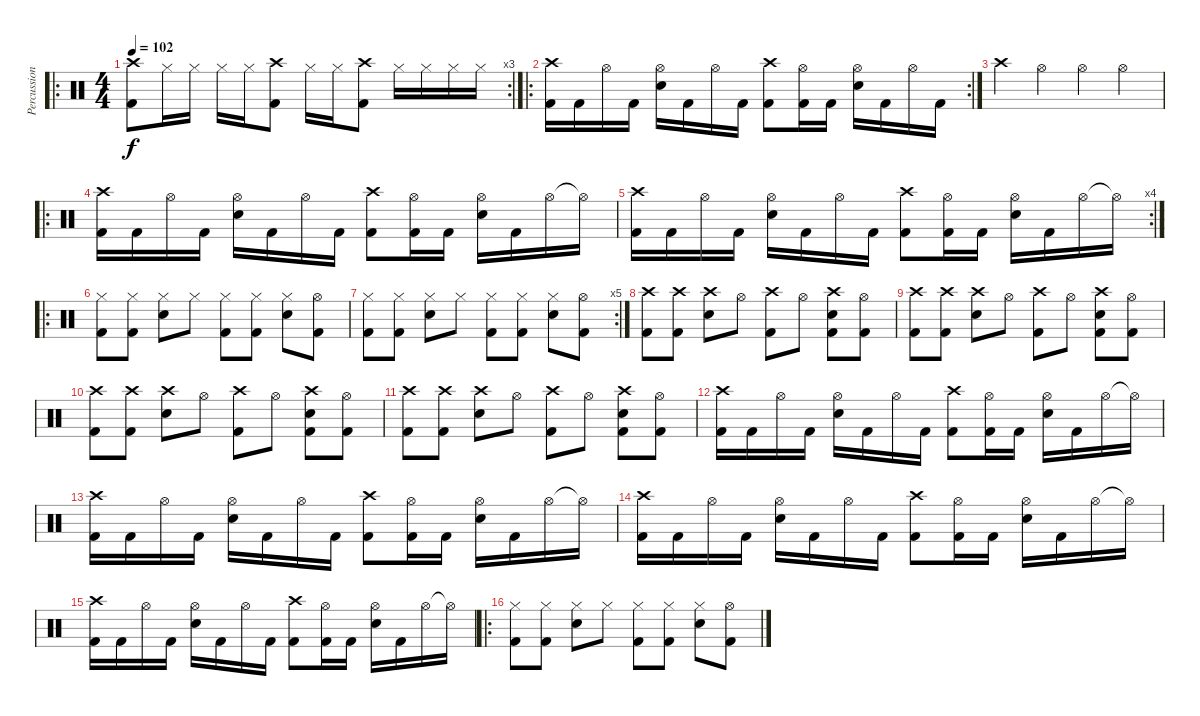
\track ("Percussioni" "Percussion") {instrument percussion}
\staff {score}
\articulation defaults
\ro
\rc 3
\ts (4 4)
\tempo 102
\clef neutral
\ks c
("Crash high (hit)" "Kick (hit) 2").8{dy f} "Hi-Hat (closed)".16 "Hi-Hat (closed)".16 "Hi-Hat (closed)".16 "Hi-Hat (closed)".16 ("Crash high (hit)" "Kick (hit) 2").8 "Hi-Hat (closed)".16 "Hi-Hat (closed)".16 ("Crash high (hit)" "Kick (hit) 2").8 "Hi-Hat (closed)".16 "Hi-Hat (closed)".16 "Hi-Hat (closed)".16 "Hi-Hat (closed)".16 |
\ro
\rc 2
("Crash high (hit)" "Kick (hit) 2").16 "Kick (hit) 2".16 "Hi-Hat (open)".16 "Kick (hit) 2".16 ("Hi-Hat (open)" "Electric Snare (hit)").16 "Kick (hit) 2".16 "Hi-Hat (open)".16 "Kick (hit) 2".16 ("Crash high (hit)" "Kick (hit) 2").8 ("Hi-Hat (open)" "Kick (hit) 2").16 "Kick (hit) 2".16 ("Hi-Hat (open)" "Electric Snare (hit)").16 "Kick (hit) 2".16 "Hi-Hat (open)".16 "Kick (hit) 2".16 |
"Crash high (hit)".4 "Hi-Hat (open)".4 "Hi-Hat (open)".4 "Hi-Hat (open)".4 |
\ro
("Crash high (hit)" "Kick (hit) 2").16 "Kick (hit) 2".16 "Hi-Hat (open)".16 "Kick (hit) 2".16 ("Hi-Hat (open)" "Electric Snare (hit)").16 "Kick (hit) 2".16 "Hi-Hat (open)".16 "Kick (hit) 2".16 ("Crash high (hit)" "Kick (hit) 2").8 ("Hi-Hat (open)" "Kick (hit) 2").16 "Kick (hit) 2".16 ("Hi-Hat (open)" "Electric Snare (hit)").16 "Kick (hit) 2".16 "Hi-Hat (open)".16 "Hi-Hat (open)"{t}.16 |
\rc 4
("Crash high (hit)" "Kick (hit) 2").16 "Kick (hit) 2".16 "Hi-Hat (open)".16 "Kick (hit) 2".16 ("Hi-Hat (open)" "Electric Snare (hit)").16 "Kick (hit) 2".16 "Hi-Hat (open)".16 "Kick (hit) 2".16 ("Crash high (hit)" "Kick (hit) 2").8 ("Hi-Hat (open)" "Kick (hit) 2").16 "Kick (hit) 2".16 ("Hi-Hat (open)" "Electric Snare (hit)").16 "Kick (hit) 2".16 "Hi-Hat (open)".16 "Hi-Hat (open)"{t}.16 |
\ro
("Hi-Hat (closed)" "Kick (hit) 2").8 ("Hi-Hat (closed)" "Kick (hit) 2").8 ("Hi-Hat (closed)" "Electric Snare (hit)").8 "Hi-Hat (closed)".8 ("Hi-Hat (closed)" "Kick (hit) 2").8 ("Hi-Hat (closed)" "Kick (hit) 2").8 ("Hi-Hat (closed)" "Electric Snare (hit)").8 ("Hi-Hat (open)" "Kick (hit) 2").8 |
\rc 5
("Hi-Hat (closed)" "Kick (hit) 2").8 ("Hi-Hat (closed)" "Kick (hit) 2").8 ("Hi-Hat (closed)" "Electric Snare (hit)").8 "Hi-Hat (closed)".8 ("Hi-Hat (closed)" "Kick (hit) 2").8 ("Hi-Hat (closed)" "Kick (hit) 2").8 ("Hi-Hat (closed)" "Electric Snare (hit)").8 ("Hi-Hat (open)" "Kick (hit) 2").8 |
("Crash high (hit)" "Kick (hit) 2").8 ("Crash high (hit)" "Kick (hit) 2").8 ("Crash high (hit)" "Electric Snare (hit)").8 "Hi-Hat (open)".8 ("Crash high (hit)" "Kick (hit) 2").8 "Hi-Hat (open)".8 ("Crash high (hit)" "Electric Snare (hit)" "Kick (hit) 2").8 ("Hi-Hat (open)" "Kick (hit) 2").8 |
("Crash high (hit)" "Kick (hit) 2").8 ("Crash high (hit)" "Kick (hit) 2").8 ("Crash high (hit)" "Electric Snare (hit)").8 "Hi-Hat (open)".8 ("Crash high (hit)" "Kick (hit) 2").8 "Hi-Hat (open)".8 ("Crash high (hit)" "Electric Snare (hit)" "Kick (hit) 2").8 ("Hi-Hat (open)" "Kick (hit) 2").8 |
("Crash high (hit)" "Kick (hit) 2").8 ("Crash high (hit)" "Kick (hit) 2").8 ("Crash high (hit)" "Electric Snare (hit)").8 "Hi-Hat (open)".8 ("Crash high (hit)" "Kick (hit) 2").8 "Hi-Hat (open)".8 ("Crash high (hit)" "Electric Snare (hit)" "Kick (hit) 2").8 ("Hi-Hat (open)" "Kick (hit) 2").8 |
("Crash high (hit)" "Kick (hit) 2").8 ("Crash high (hit)" "Kick (hit) 2").8 ("Crash high (hit)" "Electric Snare (hit)").8 "Hi-Hat (open)".8 ("Crash high (hit)" "Kick (hit) 2").8 "Hi-Hat (open)".8 ("Crash high (hit)" "Electric Snare (hit)" "Kick (hit) 2").8 ("Hi-Hat (open)" "Kick (hit) 2").8 |
("Crash high (hit)" "Kick (hit) 2").16 "Kick (hit) 2".16 "Hi-Hat (open)".16 "Kick (hit) 2".16 ("Hi-Hat (open)" "Electric Snare (hit)").16 "Kick (hit) 2".16 "Hi-Hat (open)".16 "Kick (hit) 2".16 ("Crash high (hit)" "Kick (hit) 2").8 ("Hi-Hat (open)" "Kick (hit) 2").16 "Kick (hit) 2".16 ("Hi-Hat (open)" "Electric Snare (hit)").16 "Kick (hit) 2".16 "Hi-Hat (open)".16 "Hi-Hat (open)"{t}.16 |
("Crash high (hit)" "Kick (hit) 2").16 "Kick (hit) 2".16 "Hi-Hat (open)".16 "Kick (hit) 2".16 ("Hi-Hat (open)" "Electric Snare (hit)").16 "Kick (hit) 2".16 "Hi-Hat (open)".16 "Kick (hit) 2".16 ("Crash high (hit)" "Kick (hit) 2").8 ("Hi-Hat (open)" "Kick (hit) 2").16 "Kick (hit) 2".16 ("Hi-Hat (open)" "Electric Snare (hit)").16 "Kick (hit) 2".16 "Hi-Hat (open)".16 "Hi-Hat (open)"{t}.16 |
("Crash high (hit)" "Kick (hit) 2").16 "Kick (hit) 2".16 "Hi-Hat (open)".16 "Kick (hit) 2".16 ("Hi-Hat (open)" "Electric Snare (hit)").16 "Kick (hit) 2".16 "Hi-Hat (open)".16 "Kick (hit) 2".16 ("Crash high (hit)" "Kick (hit) 2").8 ("Hi-Hat (open)" "Kick (hit) 2").16 "Kick (hit) 2".16 ("Hi-Hat (open)" "Electric Snare (hit)").16 "Kick (hit) 2".16 "Hi-Hat (open)".16 "Hi-Hat (open)"{t}.16 |
("Crash high (hit)" "Kick (hit) 2").16 "Kick (hit) 2".16 "Hi-Hat (open)".16 "Kick (hit) 2".16 ("Hi-Hat (open)" "Electric Snare (hit)").16 "Kick (hit) 2".16 "Hi-Hat (open)".16 "Kick (hit) 2".16 ("Crash high (hit)" "Kick (hit) 2").8 ("Hi-Hat (open)" "Kick (hit) 2").16 "Kick (hit) 2".16 ("Hi-Hat (open)" "Electric Snare (hit)").16 "Kick (hit) 2".16 "Hi-Hat (open)".16 "Hi-Hat (open)"{t}.16 |
\ro
("Hi-Hat (closed)" "Kick (hit) 2").8 ("Hi-Hat (closed)" "Kick (hit) 2").8 ("Hi-Hat (closed)" "Electric Snare (hit)").8 "Hi-Hat (closed)".8 ("Hi-Hat (closed)" "Kick (hit) 2").8 ("Hi-Hat (closed)" "Kick (hit) 2").8 ("Hi-Hat (closed)" "Electric Snare (hit)").8 ("Hi-Hat (open)" "Kick (hit) 2").8
